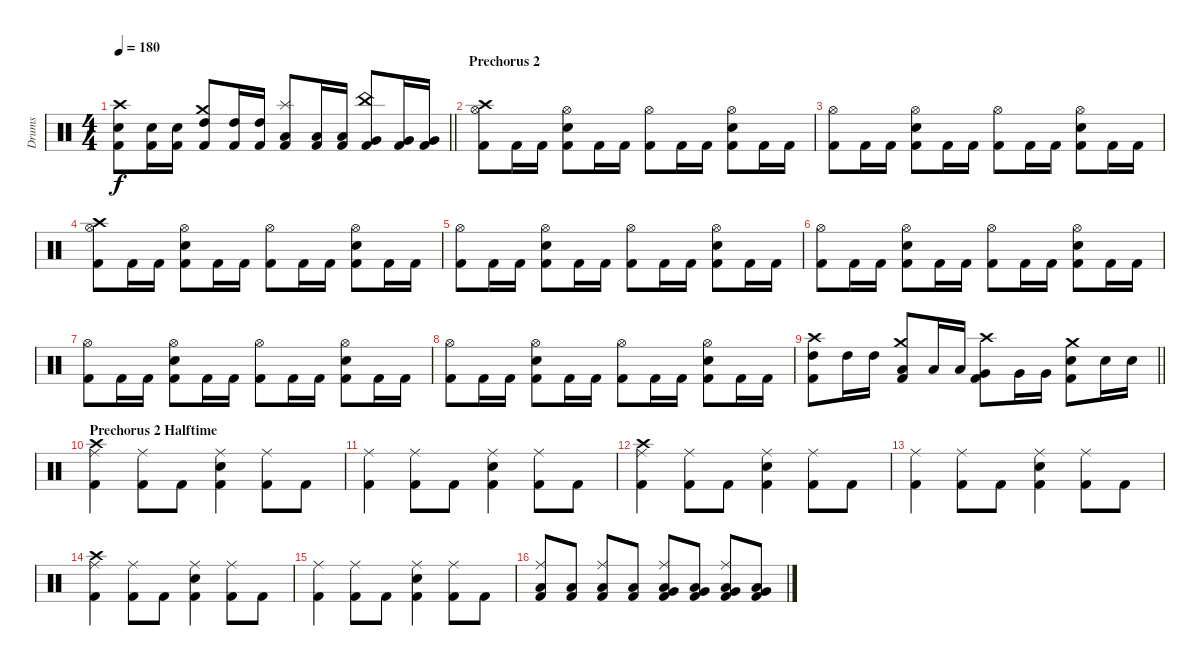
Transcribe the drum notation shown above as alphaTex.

\track ("Drums" "Drums") {instrument percussion}
\staff {score}
\articulation defaults
\ts (4 4)
\tempo 180
\clef neutral
\barLineRight lightlight
\ks c
("Crash high (hit)" "Snare (hit) 2" "Kick (hit) 2").8{dy f} ("Snare (hit) 2" "Kick (hit) 2").16 ("Snare (hit) 2" "Kick (hit) 2").16 ("Crash medium (hit)" "High Tom (hit)" "Kick (hit) 2").8 ("High Tom (hit)" "Kick (hit) 2").16 ("High Tom (hit)" "Kick (hit) 2").16 ("Splash (hit)" "Low Tom (hit)" "Kick (hit) 2").8 ("Low Tom (hit)" "Kick (hit) 2").16 ("Low Tom (hit)" "Kick (hit) 2").16 ("China (hit)" "Very Low Tom (hit)" "Kick (hit) 2").8 ("Very Low Tom (hit)" "Kick (hit) 2").16 ("Very Low Tom (hit)" "Kick (hit) 2").16 |
\section ("" "Prechorus 2")
("Crash high (hit)" "Hi-Hat (open)" "Kick (hit) 2").8 "Kick (hit) 2".16 "Kick (hit) 2".16 ("Hi-Hat (open)" "Snare (hit) 2" "Kick (hit) 2").8 "Kick (hit) 2".16 "Kick (hit) 2".16 ("Hi-Hat (open)" "Kick (hit) 2").8 "Kick (hit) 2".16 "Kick (hit) 2".16 ("Hi-Hat (open)" "Snare (hit) 2" "Kick (hit) 2").8 "Kick (hit) 2".16 "Kick (hit) 2".16 |
("Hi-Hat (open)" "Kick (hit) 2").8 "Kick (hit) 2".16 "Kick (hit) 2".16 ("Hi-Hat (open)" "Snare (hit) 2" "Kick (hit) 2").8 "Kick (hit) 2".16 "Kick (hit) 2".16 ("Hi-Hat (open)" "Kick (hit) 2").8 "Kick (hit) 2".16 "Kick (hit) 2".16 ("Hi-Hat (open)" "Snare (hit) 2" "Kick (hit) 2").8 "Kick (hit) 2".16 "Kick (hit) 2".16 |
("Crash high (hit)" "Hi-Hat (open)" "Kick (hit) 2").8 "Kick (hit) 2".16 "Kick (hit) 2".16 ("Hi-Hat (open)" "Snare (hit) 2" "Kick (hit) 2").8 "Kick (hit) 2".16 "Kick (hit) 2".16 ("Hi-Hat (open)" "Kick (hit) 2").8 "Kick (hit) 2".16 "Kick (hit) 2".16 ("Hi-Hat (open)" "Snare (hit) 2" "Kick (hit) 2").8 "Kick (hit) 2".16 "Kick (hit) 2".16 |
("Hi-Hat (open)" "Kick (hit) 2").8 "Kick (hit) 2".16 "Kick (hit) 2".16 ("Hi-Hat (open)" "Snare (hit) 2" "Kick (hit) 2").8 "Kick (hit) 2".16 "Kick (hit) 2".16 ("Hi-Hat (open)" "Kick (hit) 2").8 "Kick (hit) 2".16 "Kick (hit) 2".16 ("Hi-Hat (open)" "Snare (hit) 2" "Kick (hit) 2").8 "Kick (hit) 2".16 "Kick (hit) 2".16 |
("Hi-Hat (open)" "Kick (hit) 2").8 "Kick (hit) 2".16 "Kick (hit) 2".16 ("Hi-Hat (open)" "Snare (hit) 2" "Kick (hit) 2").8 "Kick (hit) 2".16 "Kick (hit) 2".16 ("Hi-Hat (open)" "Kick (hit) 2").8 "Kick (hit) 2".16 "Kick (hit) 2".16 ("Hi-Hat (open)" "Snare (hit) 2" "Kick (hit) 2").8 "Kick (hit) 2".16 "Kick (hit) 2".16 |
("Hi-Hat (open)" "Kick (hit) 2").8 "Kick (hit) 2".16 "Kick (hit) 2".16 ("Hi-Hat (open)" "Snare (hit) 2" "Kick (hit) 2").8 "Kick (hit) 2".16 "Kick (hit) 2".16 ("Hi-Hat (open)" "Kick (hit) 2").8 "Kick (hit) 2".16 "Kick (hit) 2".16 ("Hi-Hat (open)" "Snare (hit) 2" "Kick (hit) 2").8 "Kick (hit) 2".16 "Kick (hit) 2".16 |
("Hi-Hat (open)" "Kick (hit) 2").8 "Kick (hit) 2".16 "Kick (hit) 2".16 ("Hi-Hat (open)" "Snare (hit) 2" "Kick (hit) 2").8 "Kick (hit) 2".16 "Kick (hit) 2".16 ("Hi-Hat (open)" "Kick (hit) 2").8 "Kick (hit) 2".16 "Kick (hit) 2".16 ("Hi-Hat (open)" "Snare (hit) 2" "Kick (hit) 2").8 "Kick (hit) 2".16 "Kick (hit) 2".16 |
\barLineRight lightlight
("Crash high (hit)" "High Tom (hit)" "Kick (hit) 2").8 "High Tom (hit)".16 "High Tom (hit)".16 ("Crash medium (hit)" "Low Tom (hit)" "Kick (hit) 2").8 "Low Tom (hit)".16 "Low Tom (hit)".16 ("Crash high (hit)" "Very Low Tom (hit)" "Kick (hit) 2").8 "Very Low Tom (hit)".16 "Very Low Tom (hit)".16 ("Crash medium (hit)" "Snare (hit) 2" "Kick (hit) 2").8 "Snare (hit) 2".16 "Snare (hit) 2".16 |
\section ("" "Prechorus 2 Halftime")
("Crash high (hit)" "Ride (middle)" "Kick (hit) 2").4 ("Ride (middle)" "Kick (hit) 2").8 "Kick (hit) 2".8 ("Ride (middle)" "Snare (hit) 2" "Kick (hit) 2").4 ("Ride (middle)" "Kick (hit) 2").8 "Kick (hit) 2".8 |
("Ride (middle)" "Kick (hit) 2").4 ("Ride (middle)" "Kick (hit) 2").8 "Kick (hit) 2".8 ("Ride (middle)" "Snare (hit) 2" "Kick (hit) 2").4 ("Ride (middle)" "Kick (hit) 2").8 "Kick (hit) 2".8 |
("Crash high (hit)" "Ride (middle)" "Kick (hit) 2").4 ("Ride (middle)" "Kick (hit) 2").8 "Kick (hit) 2".8 ("Ride (middle)" "Snare (hit) 2" "Kick (hit) 2").4 ("Ride (middle)" "Kick (hit) 2").8 "Kick (hit) 2".8 |
("Ride (middle)" "Kick (hit) 2").4 ("Ride (middle)" "Kick (hit) 2").8 "Kick (hit) 2".8 ("Ride (middle)" "Snare (hit) 2" "Kick (hit) 2").4 ("Ride (middle)" "Kick (hit) 2").8 "Kick (hit) 2".8 |
("Crash high (hit)" "Ride (middle)" "Kick (hit) 2").4 ("Ride (middle)" "Kick (hit) 2").8 "Kick (hit) 2".8 ("Ride (middle)" "Snare (hit) 2" "Kick (hit) 2").4 ("Ride (middle)" "Kick (hit) 2").8 "Kick (hit) 2".8 |
("Ride (middle)" "Kick (hit) 2").4 ("Ride (middle)" "Kick (hit) 2").8 "Kick (hit) 2".8 ("Ride (middle)" "Snare (hit) 2" "Kick (hit) 2").4 ("Ride (middle)" "Kick (hit) 2").8 "Kick (hit) 2".8 |
("Ride (middle)" "Low Floor Tom (hit)" "Kick (hit) 2").8 ("Low Floor Tom (hit)" "Kick (hit) 2").8 ("Ride (middle)" "Low Floor Tom (hit)" "Kick (hit) 2").8 ("Low Floor Tom (hit)" "Kick (hit) 2").8 ("Ride (middle)" "Very Low Tom (hit)" "Low Floor Tom (hit)" "Kick (hit) 2").8 ("Very Low Tom (hit)" "Low Floor Tom (hit)" "Kick (hit) 2").8 ("Ride (middle)" "Very Low Tom (hit)" "Low Floor Tom (hit)" "Kick (hit) 2").8 ("Very Low Tom (hit)" "Low Floor Tom (hit)" "Kick (hit) 2").8
